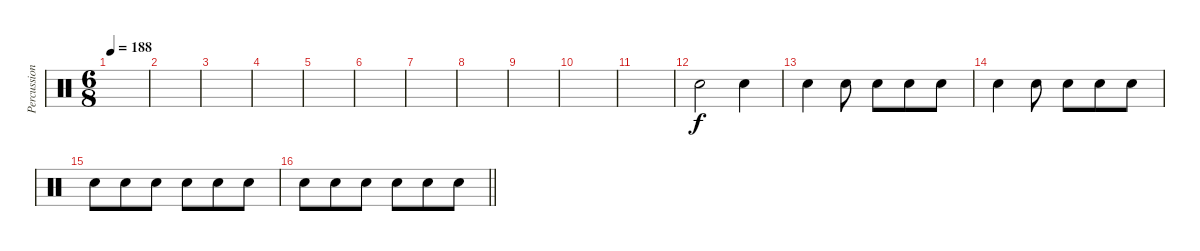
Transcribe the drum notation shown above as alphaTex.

\track ("Percussion" "Percussion") {instrument percussion}
\staff {score}
\articulation defaults
\ts (6 8)
\tempo 188
\clef neutral
\ks c
|
|
|
|
|
|
|
|
|
|
|
"Snare (hit) 2".2 "Snare (hit) 2".4 |
"Snare (hit) 2".4 "Snare (hit) 2".8 "Snare (hit) 2".8 "Snare (hit) 2".8 "Snare (hit) 2".8 |
"Snare (hit) 2".4 "Snare (hit) 2".8 "Snare (hit) 2".8 "Snare (hit) 2".8 "Snare (hit) 2".8 |
"Snare (hit) 2".8 "Snare (hit) 2".8 "Snare (hit) 2".8 "Snare (hit) 2".8 "Snare (hit) 2".8 "Snare (hit) 2".8 |
\barLineRight lightlight "Snare (hit) 2".8 "Snare (hit) 2".8 "Snare (hit) 2".8 "Snare (hit) 2".8 "Snare (hit) 2".8 "Snare (hit) 2".8
